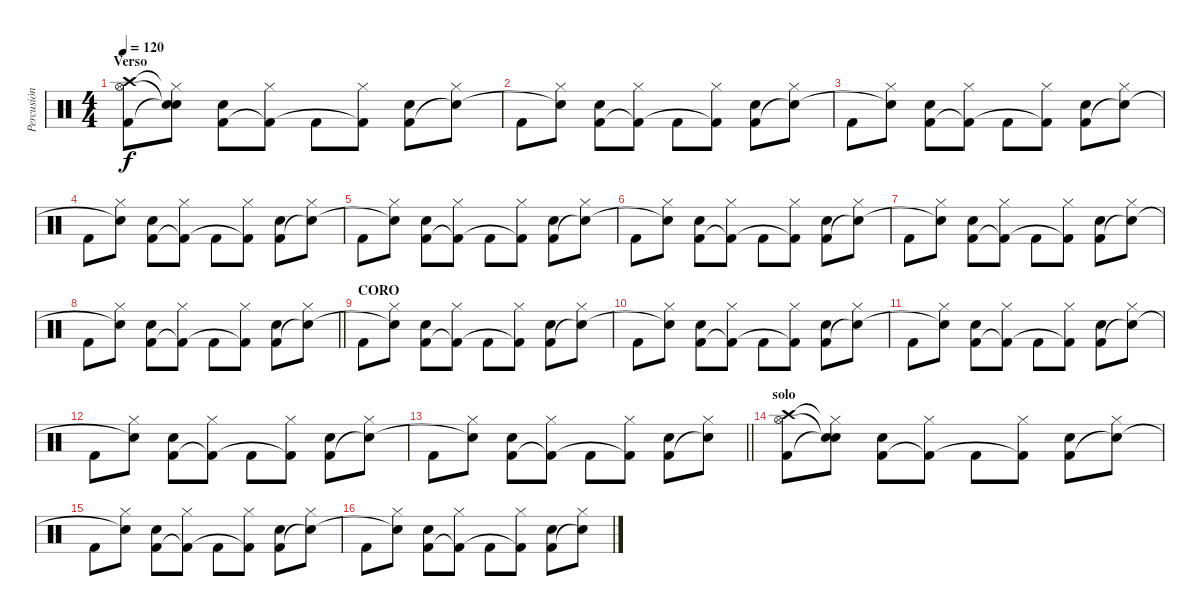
\track ("Percusión" "Percusión") {instrument percussion}
\staff {score}
\articulation defaults
\ts (4 4)
\section ("" "Verso")
\tempo 120
\clef neutral
\ks c
("Crash high (hit)" "Kick (hit) 2" "Hi-Hat (open)").8{dy f} ("Hi-Hat (closed)"{t} "Snare (hit)"{t} "Snare (hit)"{t}).8 ("Electric Snare (hit)" "Kick (hit) 2").8 ("Hi-Hat (closed)" "Kick (hit) 2"{t}).8 "Kick (hit) 2".8 ("Hi-Hat (closed)" "Kick (hit) 2"{t}).8 ("Electric Snare (hit)" "Kick (hit) 2").8 ("Hi-Hat (closed)" "Snare (hit)"{t}).8 |
"Kick (hit) 2".8 ("Hi-Hat (closed)" "Snare (hit)"{t}).8 ("Electric Snare (hit)" "Kick (hit) 2").8 ("Hi-Hat (closed)" "Kick (hit) 2"{t}).8 "Kick (hit) 2".8 ("Hi-Hat (closed)" "Kick (hit) 2"{t}).8 ("Electric Snare (hit)" "Kick (hit) 2").8 ("Hi-Hat (closed)" "Snare (hit)"{t}).8 |
"Kick (hit) 2".8 ("Hi-Hat (closed)" "Snare (hit)"{t}).8 ("Electric Snare (hit)" "Kick (hit) 2").8 ("Hi-Hat (closed)" "Kick (hit) 2"{t}).8 "Kick (hit) 2".8 ("Hi-Hat (closed)" "Kick (hit) 2"{t}).8 ("Electric Snare (hit)" "Kick (hit) 2").8 ("Hi-Hat (closed)" "Snare (hit)"{t}).8 |
"Kick (hit) 2".8 ("Hi-Hat (closed)" "Snare (hit)"{t}).8 ("Electric Snare (hit)" "Kick (hit) 2").8 ("Hi-Hat (closed)" "Kick (hit) 2"{t}).8 "Kick (hit) 2".8 ("Hi-Hat (closed)" "Kick (hit) 2"{t}).8 ("Electric Snare (hit)" "Kick (hit) 2").8 ("Hi-Hat (closed)" "Snare (hit)"{t}).8 |
"Kick (hit) 2".8 ("Hi-Hat (closed)" "Snare (hit)"{t}).8 ("Electric Snare (hit)" "Kick (hit) 2").8 ("Hi-Hat (closed)" "Kick (hit) 2"{t}).8 "Kick (hit) 2".8 ("Hi-Hat (closed)" "Kick (hit) 2"{t}).8 ("Electric Snare (hit)" "Kick (hit) 2").8 ("Hi-Hat (closed)" "Snare (hit)"{t}).8 |
"Kick (hit) 2".8 ("Hi-Hat (closed)" "Snare (hit)"{t}).8 ("Electric Snare (hit)" "Kick (hit) 2").8 ("Hi-Hat (closed)" "Kick (hit) 2"{t}).8 "Kick (hit) 2".8 ("Hi-Hat (closed)" "Kick (hit) 2"{t}).8 ("Electric Snare (hit)" "Kick (hit) 2").8 ("Hi-Hat (closed)" "Snare (hit)"{t}).8 |
"Kick (hit) 2".8 ("Hi-Hat (closed)" "Snare (hit)"{t}).8 ("Electric Snare (hit)" "Kick (hit) 2").8 ("Hi-Hat (closed)" "Kick (hit) 2"{t}).8 "Kick (hit) 2".8 ("Hi-Hat (closed)" "Kick (hit) 2"{t}).8 ("Electric Snare (hit)" "Kick (hit) 2").8 ("Hi-Hat (closed)" "Snare (hit)"{t}).8 |
\barLineRight lightlight "Kick (hit) 2".8
("Hi-Hat (closed)" "Snare (hit)"{t}).8 ("Electric Snare (hit)" "Kick (hit) 2").8 ("Hi-Hat (closed)" "Kick (hit) 2"{t}).8 "Kick (hit) 2".8 ("Hi-Hat (closed)" "Kick (hit) 2"{t}).8 ("Electric Snare (hit)" "Kick (hit) 2").8 ("Hi-Hat (closed)" "Snare (hit)"{t}).8 |
\section ("" "CORO")
"Kick (hit) 2".8 ("Hi-Hat (closed)" "Snare (hit)"{t}).8 ("Electric Snare (hit)" "Kick (hit) 2").8 ("Hi-Hat (closed)" "Kick (hit) 2"{t}).8 "Kick (hit) 2".8 ("Hi-Hat (closed)" "Kick (hit) 2"{t}).8 ("Electric Snare (hit)" "Kick (hit) 2").8 ("Hi-Hat (closed)" "Snare (hit)"{t}).8 |
"Kick (hit) 2".8 ("Hi-Hat (closed)" "Snare (hit)"{t}).8 ("Electric Snare (hit)" "Kick (hit) 2").8 ("Hi-Hat (closed)" "Kick (hit) 2"{t}).8 "Kick (hit) 2".8 ("Hi-Hat (closed)" "Kick (hit) 2"{t}).8 ("Electric Snare (hit)" "Kick (hit) 2").8 ("Hi-Hat (closed)" "Snare (hit)"{t}).8 |
"Kick (hit) 2".8 ("Hi-Hat (closed)" "Snare (hit)"{t}).8 ("Electric Snare (hit)" "Kick (hit) 2").8 ("Hi-Hat (closed)" "Kick (hit) 2"{t}).8 "Kick (hit) 2".8 ("Hi-Hat (closed)" "Kick (hit) 2"{t}).8 ("Electric Snare (hit)" "Kick (hit) 2").8 ("Hi-Hat (closed)" "Snare (hit)"{t}).8 |
"Kick (hit) 2".8 ("Hi-Hat (closed)" "Snare (hit)"{t}).8 ("Electric Snare (hit)" "Kick (hit) 2").8 ("Hi-Hat (closed)" "Kick (hit) 2"{t}).8 "Kick (hit) 2".8 ("Hi-Hat (closed)" "Kick (hit) 2"{t}).8 ("Electric Snare (hit)" "Kick (hit) 2").8 ("Hi-Hat (closed)" "Snare (hit)"{t}).8 |
\barLineRight lightlight "Kick (hit) 2".8
("Hi-Hat (closed)" "Snare (hit)"{t}).8 ("Electric Snare (hit)" "Kick (hit) 2").8 ("Hi-Hat (closed)" "Kick (hit) 2"{t}).8 "Kick (hit) 2".8 ("Hi-Hat (closed)" "Kick (hit) 2"{t}).8 ("Electric Snare (hit)" "Kick (hit) 2").8 ("Hi-Hat (closed)" "Snare (hit)"{t}).8 |
\section ("" "solo")
("Crash high (hit)" "Kick (hit) 2" "Hi-Hat (open)").8 ("Hi-Hat (closed)"{t} "Snare (hit)"{t} "Snare (hit)"{t}).8 ("Electric Snare (hit)" "Kick (hit) 2").8 ("Hi-Hat (closed)" "Kick (hit) 2"{t}).8 "Kick (hit) 2".8 ("Hi-Hat (closed)" "Kick (hit) 2"{t}).8 ("Electric Snare (hit)" "Kick (hit) 2").8 ("Hi-Hat (closed)" "Snare (hit)"{t}).8 |
"Kick (hit) 2".8 ("Hi-Hat (closed)" "Snare (hit)"{t}).8 ("Electric Snare (hit)" "Kick (hit) 2").8 ("Hi-Hat (closed)" "Kick (hit) 2"{t}).8 "Kick (hit) 2".8 ("Hi-Hat (closed)" "Kick (hit) 2"{t}).8 ("Electric Snare (hit)" "Kick (hit) 2").8 ("Hi-Hat (closed)" "Snare (hit)"{t}).8 |
"Kick (hit) 2".8 ("Hi-Hat (closed)" "Snare (hit)"{t}).8 ("Electric Snare (hit)" "Kick (hit) 2").8 ("Hi-Hat (closed)" "Kick (hit) 2"{t}).8 "Kick (hit) 2".8 ("Hi-Hat (closed)" "Kick (hit) 2"{t}).8 ("Electric Snare (hit)" "Kick (hit) 2").8 ("Hi-Hat (closed)" "Snare (hit)"{t}).8
